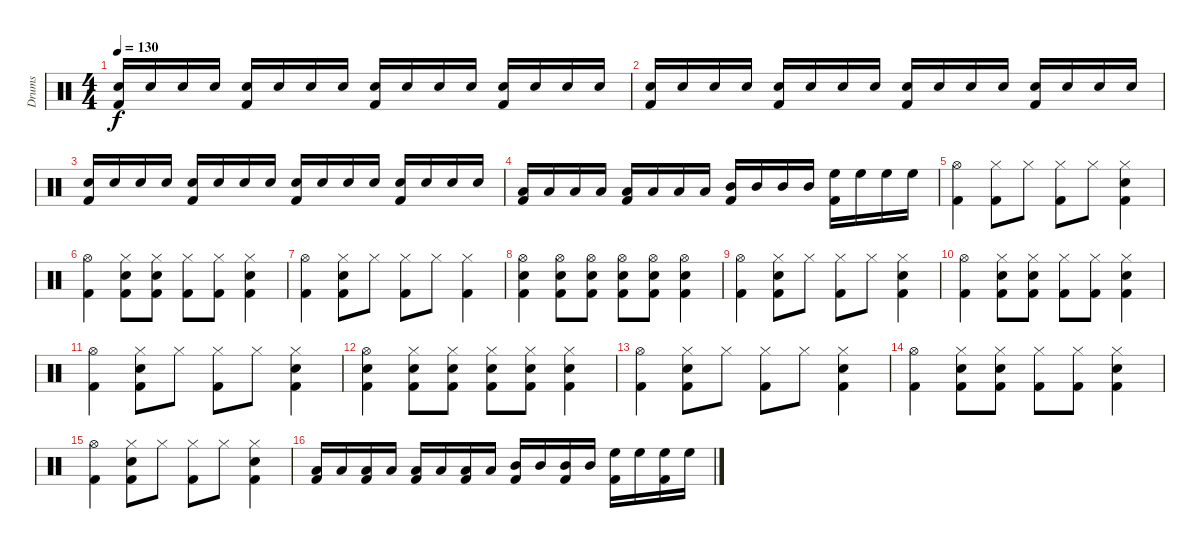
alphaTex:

\track ("Drums" "Drums") {instrument percussion}
\staff {score}
\articulation defaults
\ts (4 4)
\tempo 130
\clef neutral
\ks c
("Snare (hit) 2" "Kick (hit) 2").16{dy f} "Snare (hit) 2".16 "Snare (hit) 2".16 "Snare (hit) 2".16 ("Snare (hit) 2" "Kick (hit) 2").16 "Snare (hit) 2".16 "Snare (hit) 2".16 "Snare (hit) 2".16 ("Snare (hit) 2" "Kick (hit) 2").16 "Snare (hit) 2".16 "Snare (hit) 2".16 "Snare (hit) 2".16 ("Snare (hit) 2" "Kick (hit) 2").16 "Snare (hit) 2".16 "Snare (hit) 2".16 "Snare (hit) 2".16 |
("Snare (hit) 2" "Kick (hit) 2").16 "Snare (hit) 2".16 "Snare (hit) 2".16 "Snare (hit) 2".16 ("Snare (hit) 2" "Kick (hit) 2").16 "Snare (hit) 2".16 "Snare (hit) 2".16 "Snare (hit) 2".16 ("Snare (hit) 2" "Kick (hit) 2").16 "Snare (hit) 2".16 "Snare (hit) 2".16 "Snare (hit) 2".16 ("Snare (hit) 2" "Kick (hit) 2").16 "Snare (hit) 2".16 "Snare (hit) 2".16 "Snare (hit) 2".16 |
("Snare (hit) 2" "Kick (hit) 2").16 "Snare (hit) 2".16 "Snare (hit) 2".16 "Snare (hit) 2".16 ("Snare (hit) 2" "Kick (hit) 2").16 "Snare (hit) 2".16 "Snare (hit) 2".16 "Snare (hit) 2".16 ("Snare (hit) 2" "Kick (hit) 2").16 "Snare (hit) 2".16 "Snare (hit) 2".16 "Snare (hit) 2".16 ("Snare (hit) 2" "Kick (hit) 2").16 "Snare (hit) 2".16 "Snare (hit) 2".16 "Snare (hit) 2".16 |
("Low Floor Tom (hit)" "Kick (hit) 2").16 "Low Floor Tom (hit)".16 "Low Floor Tom (hit)".16 "Low Floor Tom (hit)".16 ("Low Tom (hit)" "Kick (hit) 2").16 "Low Tom (hit)".16 "Low Tom (hit)".16 "Low Tom (hit)".16 ("Mid Tom (hit)" "Kick (hit) 2").16 "Mid Tom (hit)".16 "Mid Tom (hit)".16 "Mid Tom (hit)".16 ("High Floor Tom (hit)" "Kick (hit) 2").16 "High Floor Tom (hit)".16 "High Floor Tom (hit)".16 "High Floor Tom (hit)".16 |
("Hi-Hat (open)" "Kick (hit) 2").4 ("Hi-Hat (closed)" "Kick (hit) 2").8 "Hi-Hat (closed)".8 ("Hi-Hat (closed)" "Kick (hit) 2").8 "Hi-Hat (closed)".8 ("Hi-Hat (closed)" "Snare (hit) 2" "Kick (hit) 2").4 |
("Hi-Hat (open)" "Kick (hit) 2").4 ("Hi-Hat (closed)" "Snare (hit) 2" "Kick (hit) 2").8 ("Hi-Hat (closed)" "Snare (hit) 2" "Kick (hit) 2").8 ("Hi-Hat (closed)" "Kick (hit) 2").8 ("Hi-Hat (closed)" "Kick (hit) 2").8 ("Hi-Hat (closed)" "Snare (hit) 2" "Kick (hit) 2").4 |
("Hi-Hat (open)" "Kick (hit) 2").4 ("Hi-Hat (closed)" "Snare (hit) 2" "Kick (hit) 2").8 "Hi-Hat (closed)".8 ("Hi-Hat (closed)" "Kick (hit) 2").8 "Hi-Hat (closed)".8 ("Hi-Hat (closed)" "Kick (hit) 2").4 |
("Hi-Hat (open)" "Snare (hit) 2" "Kick (hit) 2").4 ("Hi-Hat (open)" "Snare (hit) 2" "Kick (hit) 2").8 ("Hi-Hat (open)" "Snare (hit) 2" "Kick (hit) 2").8 ("Hi-Hat (open)" "Snare (hit) 2" "Kick (hit) 2").8 ("Hi-Hat (open)" "Snare (hit) 2" "Kick (hit) 2").8 ("Hi-Hat (open)" "Snare (hit) 2" "Kick (hit) 2").4 |
("Hi-Hat (open)" "Kick (hit) 2").4 ("Hi-Hat (closed)" "Snare (hit) 2" "Kick (hit) 2").8 "Hi-Hat (closed)".8 ("Hi-Hat (closed)" "Kick (hit) 2").8 "Hi-Hat (closed)".8 ("Hi-Hat (closed)" "Snare (hit) 2" "Kick (hit) 2").4 |
("Hi-Hat (open)" "Kick (hit) 2").4 ("Hi-Hat (closed)" "Snare (hit) 2" "Kick (hit) 2").8 ("Hi-Hat (closed)" "Snare (hit) 2" "Kick (hit) 2").8 ("Hi-Hat (closed)" "Kick (hit) 2").8 ("Hi-Hat (closed)" "Kick (hit) 2").8 ("Hi-Hat (closed)" "Snare (hit) 2" "Kick (hit) 2").4 |
("Hi-Hat (open)" "Kick (hit) 2").4 ("Hi-Hat (closed)" "Snare (hit) 2" "Kick (hit) 2").8 "Hi-Hat (closed)".8 ("Hi-Hat (closed)" "Kick (hit) 2").8 "Hi-Hat (closed)".8 ("Hi-Hat (closed)" "Snare (hit) 2" "Kick (hit) 2").4 |
("Hi-Hat (open)" "Snare (hit) 2" "Kick (hit) 2").4 ("Hi-Hat (closed)" "Snare (hit) 2" "Kick (hit) 2").8 ("Hi-Hat (closed)" "Snare (hit) 2" "Kick (hit) 2").8 ("Hi-Hat (closed)" "Snare (hit) 2" "Kick (hit) 2").8 ("Hi-Hat (closed)" "Snare (hit) 2" "Kick (hit) 2").8 ("Hi-Hat (closed)" "Snare (hit) 2" "Kick (hit) 2").4 |
("Hi-Hat (open)" "Kick (hit) 2").4 ("Hi-Hat (closed)" "Snare (hit) 2" "Kick (hit) 2").8 "Hi-Hat (closed)".8 ("Hi-Hat (closed)" "Kick (hit) 2").8 "Hi-Hat (closed)".8 ("Hi-Hat (closed)" "Snare (hit) 2" "Kick (hit) 2").4 |
("Hi-Hat (open)" "Kick (hit) 2").4 ("Hi-Hat (closed)" "Snare (hit) 2" "Kick (hit) 2").8 ("Hi-Hat (closed)" "Snare (hit) 2" "Kick (hit) 2").8 ("Hi-Hat (closed)" "Kick (hit) 2").8 ("Hi-Hat (closed)" "Kick (hit) 2").8 ("Hi-Hat (closed)" "Snare (hit) 2" "Kick (hit) 2").4 |
("Hi-Hat (open)" "Kick (hit) 2").4 ("Hi-Hat (closed)" "Snare (hit) 2" "Kick (hit) 2").8 "Hi-Hat (closed)".8 ("Hi-Hat (closed)" "Kick (hit) 2").8 "Hi-Hat (closed)".8 ("Hi-Hat (closed)" "Snare (hit) 2" "Kick (hit) 2").4 |
("Low Floor Tom (hit)" "Kick (hit) 2").16 "Low Floor Tom (hit)".16 ("Low Floor Tom (hit)" "Kick (hit) 2").16 "Low Floor Tom (hit)".16 ("Low Tom (hit)" "Kick (hit) 2").16 "Low Tom (hit)".16 ("Low Tom (hit)" "Kick (hit) 2").16 "Low Tom (hit)".16 ("Mid Tom (hit)" "Kick (hit) 2").16 "Mid Tom (hit)".16 ("Mid Tom (hit)" "Kick (hit) 2").16 "Mid Tom (hit)".16 ("High Floor Tom (hit)" "Kick (hit) 2").16 "High Floor Tom (hit)".16 ("High Floor Tom (hit)" "Kick (hit) 2").16 "High Floor Tom (hit)".16
